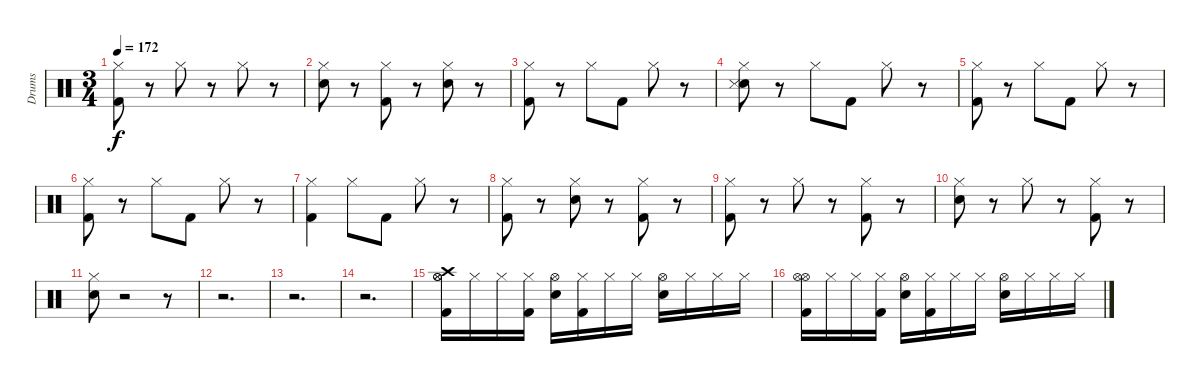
\track ("Drums" "Drums") {instrument percussion}
\staff {score}
\articulation defaults
\ts (3 4)
\tempo 172
\clef neutral
\ks c
("Hi-Hat (closed)" "Kick (hit) 2").8{dy f} r.8 "Hi-Hat (closed)".8 r.8 "Hi-Hat (closed)".8 r.8 |
("Snare (hit) 2" "Hi-Hat (closed)").8 r.8 ("Hi-Hat (closed)" "Kick (hit) 2").8 r.8 ("Hi-Hat (closed)" "Snare (hit) 2").8 r.8 |
("Kick (hit) 2" "Hi-Hat (closed)").8 r.8 "Hi-Hat (closed)".8 "Kick (hit) 2".8 "Hi-Hat (closed)".8 r.8 |
("Snare (hit) 2" "Hi-Hat (closed)" "Snare (side stick) 3").8 r.8 "Hi-Hat (closed)".8 "Kick (hit) 2".8 "Hi-Hat (closed)".8 r.8 |
("Hi-Hat (closed)" "Kick (hit) 2").8 r.8 "Hi-Hat (closed)".8 "Kick (hit) 2".8 "Hi-Hat (closed)".8 r.8 |
("Hi-Hat (closed)" "Kick (hit) 2").8 r.8 "Hi-Hat (closed)".8 "Kick (hit) 2".8 "Hi-Hat (closed)".8 r.8 |
("Hi-Hat (closed)" "Kick (hit) 2").4 "Hi-Hat (closed)".8 "Kick (hit) 2".8 "Hi-Hat (closed)".8 r.8 |
("Hi-Hat (closed)" "Kick (hit) 2").8 r.8 ("Hi-Hat (closed)" "Snare (hit) 2").8 r.8 ("Kick (hit) 2" "Hi-Hat (closed)").8 r.8 |
("Hi-Hat (closed)" "Kick (hit) 2").8 r.8 "Hi-Hat (closed)".8 r.8 ("Hi-Hat (closed)" "Kick (hit) 2").8 r.8 |
("Hi-Hat (closed)" "Snare (hit) 2").8 r.8 "Hi-Hat (closed)".8 r.8 ("Kick (hit) 2" "Hi-Hat (closed)").8 r.8 |
("Hi-Hat (closed)" "Snare (hit) 2").8 r.2 r.8 |
r.2{d} |
r.2{d} |
r.2{d} |
("Kick (hit) 2" "Hi-Hat (open)" "Hi-Hat (open)" "Crash high (hit)").16{volume 12 balance 8} "Hi-Hat (closed)".16 "Hi-Hat (closed)".16 ("Hi-Hat (closed)" "Kick (hit) 2").16 ("Snare (hit) 2" "Hi-Hat (open)").16 ("Kick (hit) 2" "Hi-Hat (closed)").16 "Hi-Hat (closed)".16 "Hi-Hat (closed)".16 ("Hi-Hat (open)" "Snare (hit) 2").16 "Hi-Hat (closed)".16 "Hi-Hat (closed)".16 "Hi-Hat (closed)".16 |
("Kick (hit) 2" "Hi-Hat (open)" "Hi-Hat (open)").16 "Hi-Hat (closed)".16 "Hi-Hat (closed)".16 ("Hi-Hat (closed)" "Kick (hit) 2").16 ("Snare (hit) 2" "Hi-Hat (open)").16 ("Kick (hit) 2" "Hi-Hat (closed)").16 "Hi-Hat (closed)".16 "Hi-Hat (closed)".16 ("Hi-Hat (open)" "Snare (hit) 2").16 "Hi-Hat (closed)".16 "Hi-Hat (closed)".16 "Hi-Hat (closed)".16
